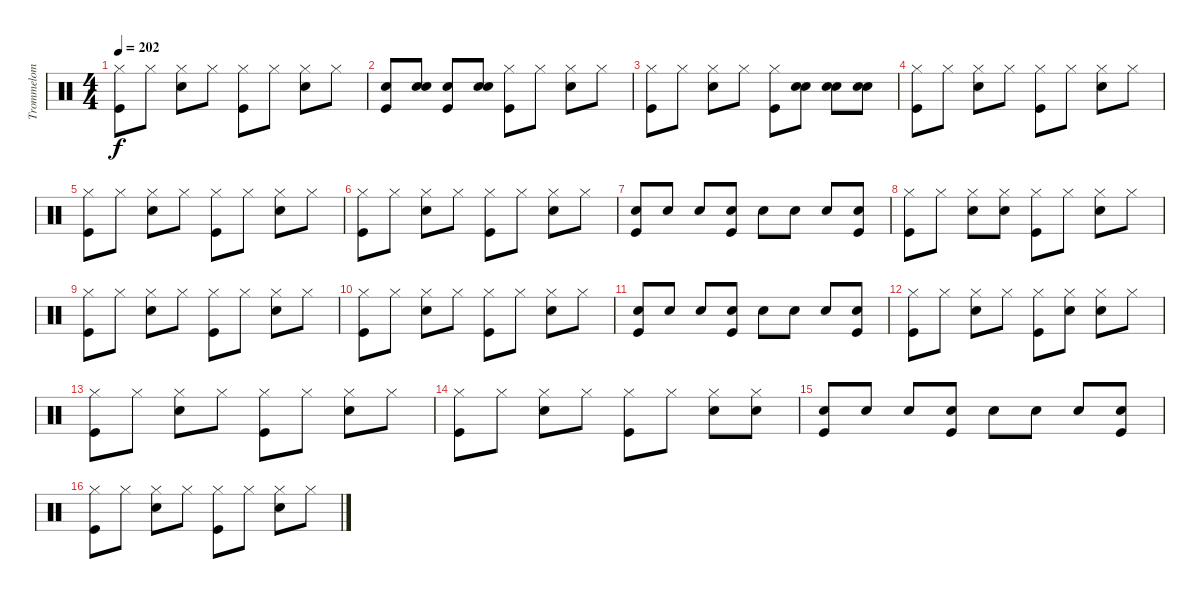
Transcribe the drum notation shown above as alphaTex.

\track ("Trommelom" "Trommelom") {instrument percussion}
\staff {score}
\articulation defaults
\ts (4 4)
\tempo 202
\clef neutral
\ks c
("Hi-Hat (closed)" "Kick (hit)").8{dy f} "Hi-Hat (closed)".8 ("Hi-Hat (closed)" "Electric Snare (hit)").8 "Hi-Hat (closed)".8 ("Hi-Hat (closed)" "Kick (hit)").8 "Hi-Hat (closed)".8 ("Hi-Hat (closed)" "Electric Snare (hit)").8 "Hi-Hat (closed)".8 |
("Electric Snare (hit)" "Kick (hit)").8 ("Electric Snare (hit)" "Electric Snare (hit)").8 ("Electric Snare (hit)" "Kick (hit)").8 ("Electric Snare (hit)" "Electric Snare (hit)").8 ("Hi-Hat (closed)" "Kick (hit)").8 "Hi-Hat (closed)".8 ("Hi-Hat (closed)" "Electric Snare (hit)").8 "Hi-Hat (closed)".8 |
("Hi-Hat (closed)" "Kick (hit)").8 "Hi-Hat (closed)".8 ("Hi-Hat (closed)" "Electric Snare (hit)").8 "Hi-Hat (closed)".8 ("Hi-Hat (closed)" "Kick (hit)").8 ("Electric Snare (hit)" "Electric Snare (hit)").8 ("Electric Snare (hit)" "Electric Snare (hit)").8 ("Electric Snare (hit)" "Electric Snare (hit)").8 |
("Hi-Hat (closed)" "Kick (hit)").8 "Hi-Hat (closed)".8 ("Hi-Hat (closed)" "Electric Snare (hit)").8 "Hi-Hat (closed)".8 ("Hi-Hat (closed)" "Kick (hit)").8 "Hi-Hat (closed)".8 ("Hi-Hat (closed)" "Electric Snare (hit)").8 "Hi-Hat (closed)".8 |
("Hi-Hat (closed)" "Kick (hit)").8 "Hi-Hat (closed)".8 ("Hi-Hat (closed)" "Electric Snare (hit)").8 "Hi-Hat (closed)".8 ("Hi-Hat (closed)" "Kick (hit)").8 "Hi-Hat (closed)".8 ("Hi-Hat (closed)" "Electric Snare (hit)").8 "Hi-Hat (closed)".8 |
("Hi-Hat (closed)" "Kick (hit)").8 "Hi-Hat (closed)".8 ("Hi-Hat (closed)" "Electric Snare (hit)").8 "Hi-Hat (closed)".8 ("Hi-Hat (closed)" "Kick (hit)").8 "Hi-Hat (closed)".8 ("Hi-Hat (closed)" "Electric Snare (hit)").8 "Hi-Hat (closed)".8 |
("Snare (hit) 2" "Kick (hit)").8 "Snare (hit) 2".8 "Snare (hit) 2".8 ("Snare (hit) 2" "Kick (hit)").8 "Electric Snare (hit)".8 "Electric Snare (hit)".8 "Electric Snare (hit)".8 ("Electric Snare (hit)" "Kick (hit)").8 |
("Hi-Hat (closed)" "Kick (hit)").8 "Hi-Hat (closed)".8 ("Hi-Hat (closed)" "Electric Snare (hit)").8 ("Hi-Hat (closed)" "Snare (hit)").8 ("Hi-Hat (closed)" "Kick (hit)").8 "Hi-Hat (closed)".8 ("Hi-Hat (closed)" "Electric Snare (hit)").8 "Hi-Hat (closed)".8 |
("Hi-Hat (closed)" "Kick (hit)").8 "Hi-Hat (closed)".8 ("Hi-Hat (closed)" "Electric Snare (hit)").8 "Hi-Hat (closed)".8 ("Hi-Hat (closed)" "Kick (hit)").8 "Hi-Hat (closed)".8 ("Hi-Hat (closed)" "Electric Snare (hit)").8 "Hi-Hat (closed)".8 |
("Hi-Hat (closed)" "Kick (hit)").8 "Hi-Hat (closed)".8 ("Hi-Hat (closed)" "Electric Snare (hit)").8 "Hi-Hat (closed)".8 ("Hi-Hat (closed)" "Kick (hit)").8 "Hi-Hat (closed)".8 ("Hi-Hat (closed)" "Electric Snare (hit)").8 "Hi-Hat (closed)".8 |
("Snare (hit) 2" "Kick (hit)").8 "Snare (hit) 2".8 "Snare (hit) 2".8 ("Snare (hit) 2" "Kick (hit)").8 "Electric Snare (hit)".8 "Electric Snare (hit)".8 "Electric Snare (hit)".8 ("Electric Snare (hit)" "Kick (hit)").8 |
("Hi-Hat (closed)" "Kick (hit)").8 "Hi-Hat (closed)".8 ("Hi-Hat (closed)" "Electric Snare (hit)").8 "Hi-Hat (closed)".8 ("Hi-Hat (closed)" "Kick (hit)").8 ("Hi-Hat (closed)" "Snare (hit)").8 ("Hi-Hat (closed)" "Electric Snare (hit)").8 "Hi-Hat (closed)".8 |
("Hi-Hat (closed)" "Kick (hit)").8 "Hi-Hat (closed)".8 ("Hi-Hat (closed)" "Electric Snare (hit)").8 "Hi-Hat (closed)".8 ("Hi-Hat (closed)" "Kick (hit)").8 "Hi-Hat (closed)".8 ("Hi-Hat (closed)" "Electric Snare (hit)").8 "Hi-Hat (closed)".8 |
("Hi-Hat (closed)" "Kick (hit)").8 "Hi-Hat (closed)".8 ("Hi-Hat (closed)" "Electric Snare (hit)").8 "Hi-Hat (closed)".8 ("Hi-Hat (closed)" "Kick (hit)").8 "Hi-Hat (closed)".8 ("Hi-Hat (closed)" "Electric Snare (hit)").8 ("Hi-Hat (closed)" "Snare (hit)").8 |
("Snare (hit) 2" "Kick (hit)").8 "Snare (hit) 2".8 "Snare (hit) 2".8 ("Snare (hit) 2" "Kick (hit)").8 "Electric Snare (hit)".8 "Electric Snare (hit)".8 "Electric Snare (hit)".8 ("Electric Snare (hit)" "Kick (hit)").8 |
("Hi-Hat (closed)" "Kick (hit)").8 "Hi-Hat (closed)".8 ("Hi-Hat (closed)" "Electric Snare (hit)").8 "Hi-Hat (closed)".8 ("Hi-Hat (closed)" "Kick (hit)").8 "Hi-Hat (closed)".8 ("Hi-Hat (closed)" "Electric Snare (hit)").8 "Hi-Hat (closed)".8
